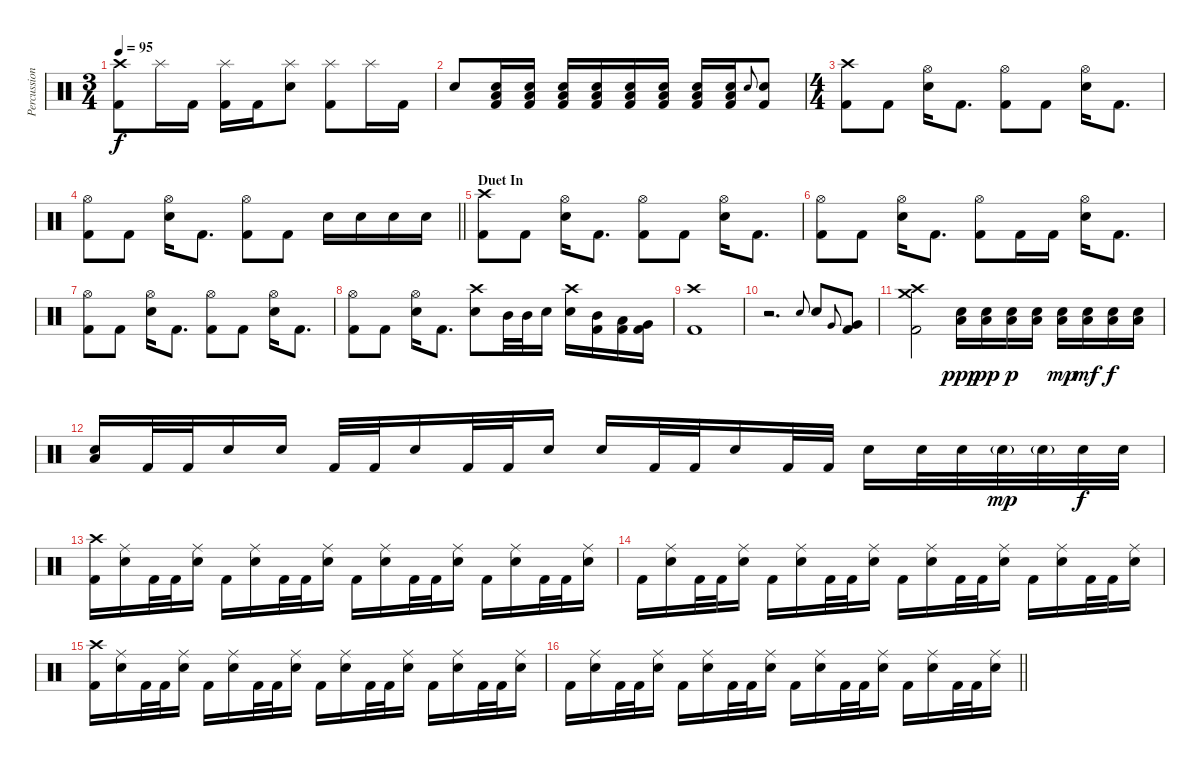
\track ("Percussion Mike" "Percussion") {instrument percussion}
\staff {score}
\articulation defaults
\ts (3 4)
\tempo 95
\clef neutral
\ks c
("Crash high (hit)" "Kick (hit) 2").8{dy f} "Splash (hit)".16 "Kick (hit) 2".16 ("Splash (hit)" "Kick (hit) 2").16 "Kick (hit) 2".16 ("Splash (hit)" "Snare (hit) 2").8 ("Splash (hit)" "Kick (hit) 2").8 "Splash (hit)".16 "Kick (hit) 2".16 |
"Snare (hit) 2".8 ("Snare (hit) 2" "Low Floor Tom (hit)" "Kick (hit) 2").16 ("Snare (hit) 2" "Low Floor Tom (hit)" "Kick (hit) 2").16 ("Snare (hit) 2" "Low Floor Tom (hit)" "Kick (hit) 2").16 ("Snare (hit) 2" "Low Floor Tom (hit)" "Kick (hit) 2").16 ("Snare (hit) 2" "Low Floor Tom (hit)" "Kick (hit) 2").16 ("Snare (hit) 2" "Low Floor Tom (hit)" "Kick (hit) 2").16 ("Snare (hit) 2" "Low Floor Tom (hit)" "Kick (hit) 2").16 ("Snare (hit) 2" "Low Floor Tom (hit)" "Kick (hit) 2").16 "Snare (hit) 2".8{gr onbeat} ("Snare (hit) 2" "Kick (hit) 2").8 |
\ts (4 4)
("Crash high (hit)" "Kick (hit) 2").8 "Kick (hit) 2".8 ("Hi-Hat (open)" "Snare (hit) 2").16 "Kick (hit) 2".8{d} ("Hi-Hat (open)" "Kick (hit) 2").8 "Kick (hit) 2".8 ("Hi-Hat (open)" "Snare (hit) 2").16 "Kick (hit) 2".8{d} |
\barLineRight lightlight
("Hi-Hat (open)" "Kick (hit) 2").8 "Kick (hit) 2".8 ("Hi-Hat (open)" "Snare (hit) 2").16 "Kick (hit) 2".8{d} ("Hi-Hat (open)" "Kick (hit) 2").8 "Kick (hit) 2".8 "Snare (hit) 2".16 "Snare (hit) 2".16 "Snare (hit) 2".16 "Snare (hit) 2".16 |
\section ("" "Duet In")
("Crash high (hit)" "Kick (hit) 2").8 "Kick (hit) 2".8 ("Hi-Hat (open)" "Snare (hit) 2").16 "Kick (hit) 2".8{d} ("Hi-Hat (open)" "Kick (hit) 2").8 "Kick (hit) 2".8 ("Hi-Hat (open)" "Snare (hit) 2").16 "Kick (hit) 2".8{d} |
("Hi-Hat (open)" "Kick (hit) 2").8 "Kick (hit) 2".8 ("Hi-Hat (open)" "Snare (hit) 2").16 "Kick (hit) 2".8{d} ("Hi-Hat (open)" "Kick (hit) 2").8 "Kick (hit) 2".16 "Kick (hit) 2".16 ("Hi-Hat (open)" "Snare (hit) 2").16 "Kick (hit) 2".8{d} |
("Hi-Hat (open)" "Kick (hit) 2").8 "Kick (hit) 2".8 ("Hi-Hat (open)" "Snare (hit) 2").16 "Kick (hit) 2".8{d} ("Hi-Hat (open)" "Kick (hit) 2").8 "Kick (hit) 2".8 ("Hi-Hat (open)" "Snare (hit) 2").16 "Kick (hit) 2".8{d} |
("Hi-Hat (open)" "Kick (hit) 2").8 "Kick (hit) 2".8 ("Hi-Hat (open)" "Snare (hit) 2").16 "Kick (hit) 2".8{d} ("Crash high (hit)" "Snare (hit) 2").8 "Mid Tom (hit)".32 "Mid Tom (hit)".32 "Snare (hit) 2".16 ("Crash high (hit)" "Snare (hit) 2").16 ("Mid Tom (hit)" "Kick (hit) 2").16 ("Low Tom (hit)" "Kick (hit) 2").16 ("Very Low Tom (hit)" "Kick (hit) 2").16 |
("Crash high (hit)" "Kick (hit) 2").1 |
r.2{d} "Snare (hit) 2".8{gr onbeat} "Snare (hit) 2".8 "Very Low Tom (hit)".8{gr onbeat} ("Very Low Tom (hit)" "Kick (hit) 2").8 |
("Crash medium (hit)" "Crash high (hit)" "Kick (hit) 2").2 ("Snare (hit) 2" "Low Floor Tom (hit)").16{dy ppp} ("Snare (hit) 2" "Low Floor Tom (hit)").16{dy pp} ("Snare (hit) 2" "Low Floor Tom (hit)").16{dy p} ("Snare (hit) 2" "Low Floor Tom (hit)").16 ("Snare (hit) 2" "Low Floor Tom (hit)").16{dy mp} ("Snare (hit) 2" "Low Floor Tom (hit)").16{dy mf} ("Snare (hit) 2" "Low Floor Tom (hit)").16{dy f} ("Snare (hit) 2" "Low Floor Tom (hit)").16 |
("Snare (hit) 2" "Low Floor Tom (hit)").16 "Kick (hit) 2".32 "Kick (hit) 2".32 "Snare (hit) 2".16 "Snare (hit) 2".16 "Kick (hit) 2".32 "Kick (hit) 2".32 "Snare (hit) 2".16 "Kick (hit) 2".32 "Kick (hit) 2".32 "Snare (hit) 2".16 "Snare (hit) 2".16 "Kick (hit) 2".32 "Kick (hit) 2".32 "Snare (hit) 2".16 "Kick (hit) 2".32 "Kick (hit) 2".32 "Snare (hit) 2".16 "Snare (hit) 2".32 "Snare (hit) 2".32 "Snare (hit) 2"{g}.32{dy mp} "Snare (hit) 2"{g}.32 "Snare (hit) 2".32{dy f} "Snare (hit) 2".32 |
("Crash high (hit)" "Kick (hit) 2").16 ("Ride (middle)" "Snare (hit) 2").16 "Kick (hit) 2".32 "Kick (hit) 2".32 ("Ride (middle)" "Snare (hit) 2").16 "Kick (hit) 2".16 ("Ride (middle)" "Snare (hit) 2").16 "Kick (hit) 2".32 "Kick (hit) 2".32 ("Ride (middle)" "Snare (hit) 2").16 "Kick (hit) 2".16 ("Ride (middle)" "Snare (hit) 2").16 "Kick (hit) 2".32 "Kick (hit) 2".32 ("Ride (middle)" "Snare (hit) 2").16 "Kick (hit) 2".16 ("Ride (middle)" "Snare (hit) 2").16 "Kick (hit) 2".32 "Kick (hit) 2".32 ("Ride (middle)" "Snare (hit) 2").16 |
"Kick (hit) 2".16 ("Ride (middle)" "Snare (hit) 2").16 "Kick (hit) 2".32 "Kick (hit) 2".32 ("Ride (middle)" "Snare (hit) 2").16 "Kick (hit) 2".16 ("Ride (middle)" "Snare (hit) 2").16 "Kick (hit) 2".32 "Kick (hit) 2".32 ("Ride (middle)" "Snare (hit) 2").16 "Kick (hit) 2".16 ("Ride (middle)" "Snare (hit) 2").16 "Kick (hit) 2".32 "Kick (hit) 2".32 ("Ride (middle)" "Snare (hit) 2").16 "Kick (hit) 2".16 ("Ride (middle)" "Snare (hit) 2").16 "Kick (hit) 2".32 "Kick (hit) 2".32 ("Ride (middle)" "Snare (hit) 2").16 |
("Crash high (hit)" "Kick (hit) 2").16 ("Ride (middle)" "Snare (hit) 2").16 "Kick (hit) 2".32 "Kick (hit) 2".32 ("Ride (middle)" "Snare (hit) 2").16 "Kick (hit) 2".16 ("Ride (middle)" "Snare (hit) 2").16 "Kick (hit) 2".32 "Kick (hit) 2".32 ("Ride (middle)" "Snare (hit) 2").16 "Kick (hit) 2".16 ("Ride (middle)" "Snare (hit) 2").16 "Kick (hit) 2".32 "Kick (hit) 2".32 ("Ride (middle)" "Snare (hit) 2").16 "Kick (hit) 2".16 ("Ride (middle)" "Snare (hit) 2").16 "Kick (hit) 2".32 "Kick (hit) 2".32 ("Ride (middle)" "Snare (hit) 2").16 |
\barLineRight lightlight "Kick (hit) 2".16
("Ride (middle)" "Snare (hit) 2").16 "Kick (hit) 2".32 "Kick (hit) 2".32 ("Ride (middle)" "Snare (hit) 2").16 "Kick (hit) 2".16 ("Ride (middle)" "Snare (hit) 2").16 "Kick (hit) 2".32 "Kick (hit) 2".32 ("Ride (middle)" "Snare (hit) 2").16 "Kick (hit) 2".16 ("Ride (middle)" "Snare (hit) 2").16 "Kick (hit) 2".32 "Kick (hit) 2".32 ("Ride (middle)" "Snare (hit) 2").16 "Kick (hit) 2".16 ("Ride (middle)" "Snare (hit) 2").16 "Kick (hit) 2".32 "Kick (hit) 2".32 ("Ride (middle)" "Snare (hit) 2").16
